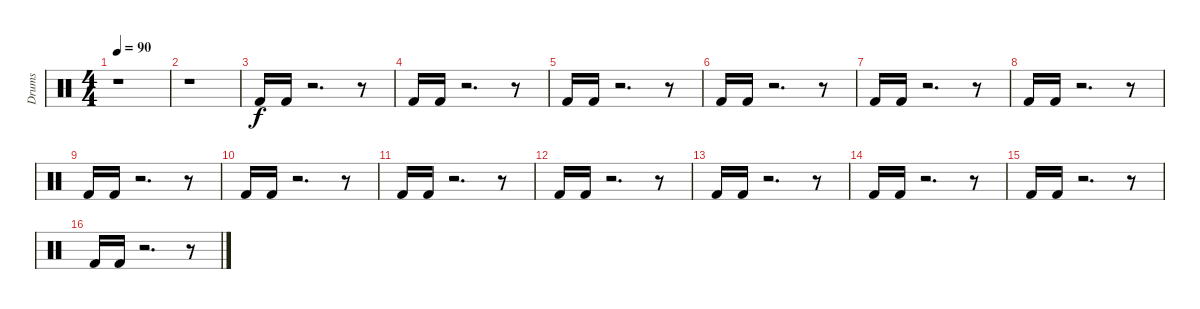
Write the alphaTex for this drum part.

\track ("Drums" "Drums") {instrument percussion}
\staff {score}
\articulation defaults
\ts (4 4)
\tempo 90
\clef neutral
\ks c
r.1{dy f} |
r.1 |
"Kick (hit) 2".16 "Kick (hit) 2".16 r.2{d} r.8 |
"Kick (hit) 2".16 "Kick (hit) 2".16 r.2{d} r.8 |
"Kick (hit) 2".16 "Kick (hit) 2".16 r.2{d} r.8 |
"Kick (hit) 2".16 "Kick (hit) 2".16 r.2{d} r.8 |
"Kick (hit) 2".16 "Kick (hit) 2".16 r.2{d} r.8 |
"Kick (hit) 2".16 "Kick (hit) 2".16 r.2{d} r.8 |
"Kick (hit) 2".16 "Kick (hit) 2".16 r.2{d} r.8 |
"Kick (hit) 2".16 "Kick (hit) 2".16 r.2{d} r.8 |
"Kick (hit) 2".16 "Kick (hit) 2".16 r.2{d} r.8 |
"Kick (hit) 2".16 "Kick (hit) 2".16 r.2{d} r.8 |
"Kick (hit) 2".16 "Kick (hit) 2".16 r.2{d} r.8 |
"Kick (hit) 2".16 "Kick (hit) 2".16 r.2{d} r.8 |
"Kick (hit) 2".16 "Kick (hit) 2".16 r.2{d} r.8 |
"Kick (hit) 2".16 "Kick (hit) 2".16 r.2{d} r.8
